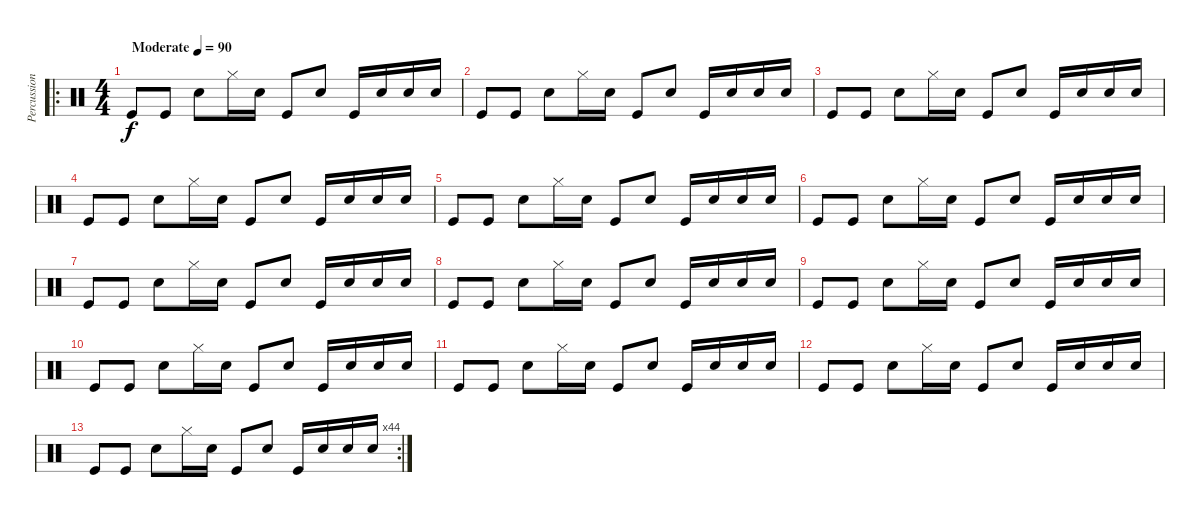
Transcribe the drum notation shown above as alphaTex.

\track ("Percussion" "Percussion") {instrument percussion}
\staff {score}
\articulation defaults
\ro
\ts (4 4)
\tempo (90 "Moderate")
\clef neutral
\ks c "Kick (hit)".8{dy f} "Kick (hit)".8 "Snare (hit) 2".8 "Hi-Hat (closed)".16 "Snare (hit) 2".16 "Kick (hit)".8 "Snare (hit) 2".8 "Kick (hit)".16 "Snare (hit) 2".16 "Snare (hit) 2".16 "Snare (hit) 2".16
|
"Kick (hit)".8 "Kick (hit)".8 "Snare (hit) 2".8 "Hi-Hat (closed)".16 "Snare (hit) 2".16 "Kick (hit)".8 "Snare (hit) 2".8 "Kick (hit)".16 "Snare (hit) 2".16 "Snare (hit) 2".16 "Snare (hit) 2".16 |
"Kick (hit)".8 "Kick (hit)".8 "Snare (hit) 2".8 "Hi-Hat (closed)".16 "Snare (hit) 2".16 "Kick (hit)".8 "Snare (hit) 2".8 "Kick (hit)".16 "Snare (hit) 2".16 "Snare (hit) 2".16 "Snare (hit) 2".16 |
"Kick (hit)".8 "Kick (hit)".8 "Snare (hit) 2".8 "Hi-Hat (closed)".16 "Snare (hit) 2".16 "Kick (hit)".8 "Snare (hit) 2".8 "Kick (hit)".16 "Snare (hit) 2".16 "Snare (hit) 2".16 "Snare (hit) 2".16 |
"Kick (hit)".8 "Kick (hit)".8 "Snare (hit) 2".8 "Hi-Hat (closed)".16 "Snare (hit) 2".16 "Kick (hit)".8 "Snare (hit) 2".8 "Kick (hit)".16 "Snare (hit) 2".16 "Snare (hit) 2".16 "Snare (hit) 2".16 |
"Kick (hit)".8 "Kick (hit)".8 "Snare (hit) 2".8 "Hi-Hat (closed)".16 "Snare (hit) 2".16 "Kick (hit)".8 "Snare (hit) 2".8 "Kick (hit)".16 "Snare (hit) 2".16 "Snare (hit) 2".16 "Snare (hit) 2".16 |
"Kick (hit)".8 "Kick (hit)".8 "Snare (hit) 2".8 "Hi-Hat (closed)".16 "Snare (hit) 2".16 "Kick (hit)".8 "Snare (hit) 2".8 "Kick (hit)".16 "Snare (hit) 2".16 "Snare (hit) 2".16 "Snare (hit) 2".16 |
"Kick (hit)".8 "Kick (hit)".8 "Snare (hit) 2".8 "Hi-Hat (closed)".16 "Snare (hit) 2".16 "Kick (hit)".8 "Snare (hit) 2".8 "Kick (hit)".16 "Snare (hit) 2".16 "Snare (hit) 2".16 "Snare (hit) 2".16 |
"Kick (hit)".8 "Kick (hit)".8 "Snare (hit) 2".8 "Hi-Hat (closed)".16 "Snare (hit) 2".16 "Kick (hit)".8 "Snare (hit) 2".8 "Kick (hit)".16 "Snare (hit) 2".16 "Snare (hit) 2".16 "Snare (hit) 2".16 |
"Kick (hit)".8 "Kick (hit)".8 "Snare (hit) 2".8 "Hi-Hat (closed)".16 "Snare (hit) 2".16 "Kick (hit)".8 "Snare (hit) 2".8 "Kick (hit)".16 "Snare (hit) 2".16 "Snare (hit) 2".16 "Snare (hit) 2".16 |
"Kick (hit)".8 "Kick (hit)".8 "Snare (hit) 2".8 "Hi-Hat (closed)".16 "Snare (hit) 2".16 "Kick (hit)".8 "Snare (hit) 2".8 "Kick (hit)".16 "Snare (hit) 2".16 "Snare (hit) 2".16 "Snare (hit) 2".16 |
"Kick (hit)".8 "Kick (hit)".8 "Snare (hit) 2".8 "Hi-Hat (closed)".16 "Snare (hit) 2".16 "Kick (hit)".8 "Snare (hit) 2".8 "Kick (hit)".16 "Snare (hit) 2".16 "Snare (hit) 2".16 "Snare (hit) 2".16 |
\rc 44 "Kick (hit)".8 "Kick (hit)".8 "Snare (hit) 2".8 "Hi-Hat (closed)".16 "Snare (hit) 2".16 "Kick (hit)".8 "Snare (hit) 2".8 "Kick (hit)".16 "Snare (hit) 2".16 "Snare (hit) 2".16 "Snare (hit) 2".16
